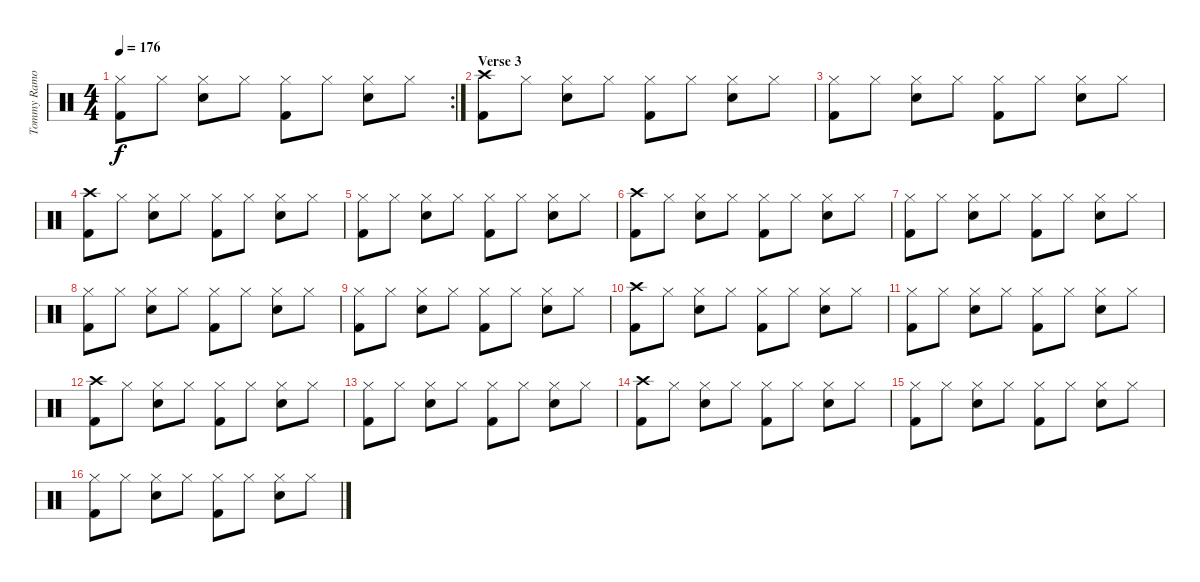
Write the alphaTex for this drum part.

\track ("Tommy Ramone" "Tommy Ramo") {instrument percussion}
\staff {score}
\articulation defaults
\rc 2
\ts (4 4)
\tempo 176
\clef neutral
\ks c
("Hi-Hat (closed)" "Kick (hit) 2").8{dy f} "Hi-Hat (closed)".8 ("Hi-Hat (closed)" "Snare (hit) 2").8 "Hi-Hat (closed)".8 ("Hi-Hat (closed)" "Kick (hit) 2").8 "Hi-Hat (closed)".8 ("Hi-Hat (closed)" "Snare (hit) 2").8 "Hi-Hat (closed)".8 |
\section ("" "Verse 3")
("Crash high (hit)" "Kick (hit) 2").8 "Hi-Hat (closed)".8 ("Hi-Hat (closed)" "Snare (hit) 2").8 "Hi-Hat (closed)".8 ("Hi-Hat (closed)" "Kick (hit) 2").8 "Hi-Hat (closed)".8 ("Hi-Hat (closed)" "Snare (hit) 2").8 "Hi-Hat (closed)".8 |
("Hi-Hat (closed)" "Kick (hit) 2").8 "Hi-Hat (closed)".8 ("Hi-Hat (closed)" "Snare (hit) 2").8 "Hi-Hat (closed)".8 ("Hi-Hat (closed)" "Kick (hit) 2").8 "Hi-Hat (closed)".8 ("Hi-Hat (closed)" "Snare (hit) 2").8 "Hi-Hat (closed)".8 |
("Crash high (hit)" "Kick (hit) 2").8 "Hi-Hat (closed)".8 ("Hi-Hat (closed)" "Snare (hit) 2").8 "Hi-Hat (closed)".8 ("Hi-Hat (closed)" "Kick (hit) 2").8 "Hi-Hat (closed)".8 ("Hi-Hat (closed)" "Snare (hit) 2").8 "Hi-Hat (closed)".8 |
("Hi-Hat (closed)" "Kick (hit) 2").8 "Hi-Hat (closed)".8 ("Hi-Hat (closed)" "Snare (hit) 2").8 "Hi-Hat (closed)".8 ("Hi-Hat (closed)" "Kick (hit) 2").8 "Hi-Hat (closed)".8 ("Hi-Hat (closed)" "Snare (hit) 2").8 "Hi-Hat (closed)".8 |
("Crash high (hit)" "Kick (hit) 2").8 "Hi-Hat (closed)".8 ("Hi-Hat (closed)" "Snare (hit) 2").8 "Hi-Hat (closed)".8 ("Hi-Hat (closed)" "Kick (hit) 2").8 "Hi-Hat (closed)".8 ("Hi-Hat (closed)" "Snare (hit) 2").8 "Hi-Hat (closed)".8 |
("Hi-Hat (closed)" "Kick (hit) 2").8 "Hi-Hat (closed)".8 ("Hi-Hat (closed)" "Snare (hit) 2").8 "Hi-Hat (closed)".8 ("Hi-Hat (closed)" "Kick (hit) 2").8 "Hi-Hat (closed)".8 ("Hi-Hat (closed)" "Snare (hit) 2").8 "Hi-Hat (closed)".8 |
("Hi-Hat (closed)" "Kick (hit) 2").8 "Hi-Hat (closed)".8 ("Hi-Hat (closed)" "Snare (hit) 2").8 "Hi-Hat (closed)".8 ("Hi-Hat (closed)" "Kick (hit) 2").8 "Hi-Hat (closed)".8 ("Hi-Hat (closed)" "Snare (hit) 2").8 "Hi-Hat (closed)".8 |
("Hi-Hat (closed)" "Kick (hit) 2").8 "Hi-Hat (closed)".8 ("Hi-Hat (closed)" "Snare (hit) 2").8 "Hi-Hat (closed)".8 ("Hi-Hat (closed)" "Kick (hit) 2").8 "Hi-Hat (closed)".8 ("Hi-Hat (closed)" "Snare (hit) 2").8 "Hi-Hat (closed)".8 |
("Crash high (hit)" "Kick (hit) 2").8 "Hi-Hat (closed)".8 ("Hi-Hat (closed)" "Snare (hit) 2").8 "Hi-Hat (closed)".8 ("Hi-Hat (closed)" "Kick (hit) 2").8 "Hi-Hat (closed)".8 ("Hi-Hat (closed)" "Snare (hit) 2").8 "Hi-Hat (closed)".8 |
("Hi-Hat (closed)" "Kick (hit) 2").8 "Hi-Hat (closed)".8 ("Hi-Hat (closed)" "Snare (hit) 2").8 "Hi-Hat (closed)".8 ("Hi-Hat (closed)" "Kick (hit) 2").8 "Hi-Hat (closed)".8 ("Hi-Hat (closed)" "Snare (hit) 2").8 "Hi-Hat (closed)".8 |
("Crash high (hit)" "Kick (hit) 2").8 "Hi-Hat (closed)".8 ("Hi-Hat (closed)" "Snare (hit) 2").8 "Hi-Hat (closed)".8 ("Hi-Hat (closed)" "Kick (hit) 2").8 "Hi-Hat (closed)".8 ("Hi-Hat (closed)" "Snare (hit) 2").8 "Hi-Hat (closed)".8 |
("Hi-Hat (closed)" "Kick (hit) 2").8 "Hi-Hat (closed)".8 ("Hi-Hat (closed)" "Snare (hit) 2").8 "Hi-Hat (closed)".8 ("Hi-Hat (closed)" "Kick (hit) 2").8 "Hi-Hat (closed)".8 ("Hi-Hat (closed)" "Snare (hit) 2").8 "Hi-Hat (closed)".8 |
("Crash high (hit)" "Kick (hit) 2").8 "Hi-Hat (closed)".8 ("Hi-Hat (closed)" "Snare (hit) 2").8 "Hi-Hat (closed)".8 ("Hi-Hat (closed)" "Kick (hit) 2").8 "Hi-Hat (closed)".8 ("Hi-Hat (closed)" "Snare (hit) 2").8 "Hi-Hat (closed)".8 |
("Hi-Hat (closed)" "Kick (hit) 2").8 "Hi-Hat (closed)".8 ("Hi-Hat (closed)" "Snare (hit) 2").8 "Hi-Hat (closed)".8 ("Hi-Hat (closed)" "Kick (hit) 2").8 "Hi-Hat (closed)".8 ("Hi-Hat (closed)" "Snare (hit) 2").8 "Hi-Hat (closed)".8 |
("Hi-Hat (closed)" "Kick (hit) 2").8 "Hi-Hat (closed)".8 ("Hi-Hat (closed)" "Snare (hit) 2").8 "Hi-Hat (closed)".8 ("Hi-Hat (closed)" "Kick (hit) 2").8 "Hi-Hat (closed)".8 ("Hi-Hat (closed)" "Snare (hit) 2").8 "Hi-Hat (closed)".8
